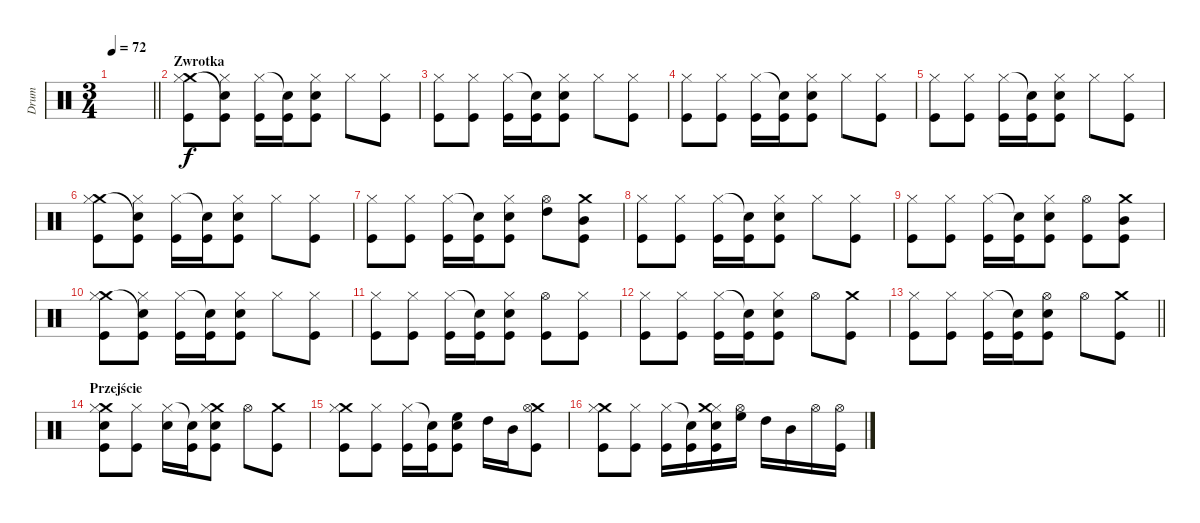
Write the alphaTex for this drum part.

\track ("Drum" "Drum") {instrument percussion}
\staff {score}
\articulation defaults
\ts (3 4)
\tempo 72
\clef neutral
\barLineRight lightlight
\ks c
|
\section ("" "Zwrotka")
("Crash medium (hit)" "Hi-Hat (closed)" "Kick (hit)").8 ("Snare (hit)"{t} "Hi-Hat (closed)" "Kick (hit)").8 ("Hi-Hat (closed)" "Kick (hit)").16 ("Snare (hit)"{t} "Kick (hit)").16 ("Hi-Hat (closed)" "Kick (hit)" "Snare (hit) 2").8 "Hi-Hat (closed)".8 ("Hi-Hat (closed)" "Kick (hit)").8 |
("Hi-Hat (closed)" "Kick (hit)").8 ("Hi-Hat (closed)" "Kick (hit)").8 ("Hi-Hat (closed)" "Kick (hit)").16 ("Snare (hit)"{t} "Kick (hit)").16 ("Hi-Hat (closed)" "Kick (hit)" "Snare (hit) 2").8 "Hi-Hat (closed)".8 ("Hi-Hat (closed)" "Kick (hit)").8 |
("Hi-Hat (closed)" "Kick (hit)").8 ("Hi-Hat (closed)" "Kick (hit)").8 ("Hi-Hat (closed)" "Kick (hit)").16 ("Snare (hit)"{t} "Kick (hit)").16 ("Hi-Hat (closed)" "Kick (hit)" "Snare (hit) 2").8 "Hi-Hat (closed)".8 ("Hi-Hat (closed)" "Kick (hit)").8 |
("Hi-Hat (closed)" "Kick (hit)").8 ("Hi-Hat (closed)" "Kick (hit)").8 ("Hi-Hat (closed)" "Kick (hit)").16 ("Snare (hit)"{t} "Kick (hit)").16 ("Hi-Hat (closed)" "Kick (hit)" "Snare (hit) 2").8 "Hi-Hat (closed)".8 ("Hi-Hat (closed)" "Kick (hit)").8 |
("Crash medium (hit)" "Hi-Hat (closed)" "Kick (hit)").8 ("Snare (hit)"{t} "Hi-Hat (closed)" "Kick (hit)").8 ("Hi-Hat (closed)" "Kick (hit)").16 ("Snare (hit)"{t} "Kick (hit)").16 ("Hi-Hat (closed)" "Kick (hit)" "Snare (hit) 2").8 "Hi-Hat (closed)".8 ("Hi-Hat (closed)" "Kick (hit)").8 |
("Hi-Hat (closed)" "Kick (hit)").8 ("Hi-Hat (closed)" "Kick (hit)").8 ("Hi-Hat (closed)" "Kick (hit)").16 ("Snare (hit)"{t} "Kick (hit)").16 ("Hi-Hat (closed)" "Kick (hit)" "Snare (hit) 2").8 ("Hi-Hat (open)" "High Tom (hit)").8 ("Crash medium (hit)" "Kick (hit)" "Mid Tom (hit)").8 |
("Hi-Hat (closed)" "Kick (hit)").8 ("Hi-Hat (closed)" "Kick (hit)").8 ("Hi-Hat (closed)" "Kick (hit)").16 ("Snare (hit)"{t} "Kick (hit)").16 ("Hi-Hat (closed)" "Kick (hit)" "Snare (hit) 2").8 "Hi-Hat (closed)".8 ("Hi-Hat (closed)" "Kick (hit)").8 |
("Hi-Hat (closed)" "Kick (hit)").8 ("Hi-Hat (closed)" "Kick (hit)").8 ("Hi-Hat (closed)" "Kick (hit)").16 ("Snare (hit)"{t} "Kick (hit)").16 ("Hi-Hat (closed)" "Kick (hit)" "Snare (hit) 2").8 ("Hi-Hat (open)" "Kick (hit)").8 ("Crash medium (hit)" "Kick (hit)" "Mid Tom (hit)").8 |
("Crash medium (hit)" "Hi-Hat (closed)" "Kick (hit)").8 ("Snare (hit)"{t} "Hi-Hat (closed)" "Kick (hit)").8 ("Hi-Hat (closed)" "Kick (hit)").16 ("Snare (hit)"{t} "Kick (hit)").16 ("Hi-Hat (closed)" "Kick (hit)" "Snare (hit) 2").8 "Hi-Hat (closed)".8 ("Hi-Hat (closed)" "Kick (hit)").8 |
("Hi-Hat (closed)" "Kick (hit)").8 ("Hi-Hat (closed)" "Kick (hit)").8 ("Hi-Hat (closed)" "Kick (hit)").16 ("Snare (hit)"{t} "Kick (hit)").16 ("Hi-Hat (closed)" "Kick (hit)" "Snare (hit) 2").8 ("Hi-Hat (open)" "Kick (hit)").8 ("Hi-Hat (closed)" "Kick (hit)").8 |
("Hi-Hat (closed)" "Kick (hit)").8 ("Hi-Hat (closed)" "Kick (hit)").8 ("Hi-Hat (closed)" "Kick (hit)").16 ("Snare (hit)"{t} "Kick (hit)").16 ("Hi-Hat (closed)" "Kick (hit)" "Snare (hit) 2").8 "Hi-Hat (open)".8 ("Crash medium (hit)" "Kick (hit)").8 |
\barLineRight lightlight
("Hi-Hat (closed)" "Kick (hit)").8 ("Hi-Hat (closed)" "Kick (hit)").8 ("Hi-Hat (closed)" "Kick (hit)").16 ("Snare (hit)"{t} "Kick (hit)").16 ("Hi-Hat (open)" "Kick (hit)" "Snare (hit) 2").8 "Hi-Hat (open)".8 ("Crash medium (hit)" "Kick (hit)").8 |
\section ("" "Przejście")
("Crash medium (hit)" "Hi-Hat (closed)" "Snare (hit) 2" "Kick (hit)").8 ("Hi-Hat (closed)" "Kick (hit)").8 ("Hi-Hat (closed)" "Snare (hit) 2").16 ("Snare (hit)"{t} "Kick (hit)").16 ("Crash medium (hit)" "Hi-Hat (closed)" "Kick (hit)" "Snare (hit) 2").8 "Hi-Hat (open)".8 ("Crash medium (hit)" "Kick (hit)").8 |
("Crash medium (hit)" "Hi-Hat (closed)" "Kick (hit)").8 ("Hi-Hat (closed)" "Kick (hit)").8 ("Hi-Hat (closed)" "Kick (hit)").16 ("Snare (hit)"{t} "Kick (hit)").16 ("High Floor Tom (hit)" "Kick (hit)" "Snare (hit) 2").8 "High Tom (hit)".16 "Mid Tom (hit)".16 ("Crash medium (hit)" "Hi-Hat (open)" "Kick (hit)").8 |
("Crash medium (hit)" "Hi-Hat (closed)" "Kick (hit)").8 ("Hi-Hat (closed)" "Kick (hit)").8 ("Hi-Hat (closed)" "Kick (hit)").16 ("Snare (hit)"{t} "Kick (hit)").16 ("Hi-Hat (closed)" "Crash medium (hit)" "Kick (hit)" "Snare (hit) 2").16 ("Hi-Hat (open)" "High Floor Tom (hit)").16 "High Tom (hit)".16 "Mid Tom (hit)".16 "Hi-Hat (open)".16 ("Hi-Hat (open)" "Kick (hit)").16
